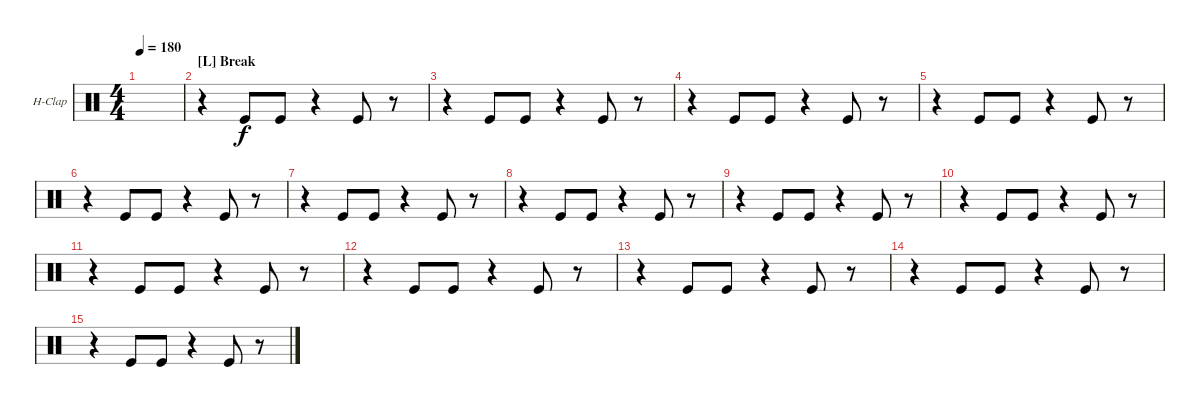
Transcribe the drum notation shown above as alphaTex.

\defaultSystemsLayout 4
\bracketExtendMode groupsimilarinstruments
\firstSystemTrackNameOrientation horizontal
\otherSystemsTrackNameOrientation horizontal
\track ("Hand Clap" "H-Clap") {instrument percussion}
\staff {score}
\articulation defaults
\ts (4 4)
\tempo 180
\clef neutral
\ks c
|
\section ("L" "Break ")
r.4 "Kick (hit)".8 "Kick (hit)".8 r.4 "Kick (hit)".8 r.8 |
r.4 "Kick (hit)".8 "Kick (hit)".8 r.4 "Kick (hit)".8 r.8 |
r.4 "Kick (hit)".8 "Kick (hit)".8 r.4 "Kick (hit)".8 r.8 |
r.4 "Kick (hit)".8 "Kick (hit)".8 r.4 "Kick (hit)".8 r.8 |
r.4 "Kick (hit)".8 "Kick (hit)".8 r.4 "Kick (hit)".8 r.8 |
r.4 "Kick (hit)".8 "Kick (hit)".8 r.4 "Kick (hit)".8 r.8 |
r.4 "Kick (hit)".8 "Kick (hit)".8 r.4 "Kick (hit)".8 r.8 |
r.4 "Kick (hit)".8 "Kick (hit)".8 r.4 "Kick (hit)".8 r.8 |
r.4 "Kick (hit)".8 "Kick (hit)".8 r.4 "Kick (hit)".8 r.8 |
r.4 "Kick (hit)".8 "Kick (hit)".8 r.4 "Kick (hit)".8 r.8 |
r.4 "Kick (hit)".8 "Kick (hit)".8 r.4 "Kick (hit)".8 r.8 |
r.4 "Kick (hit)".8 "Kick (hit)".8 r.4 "Kick (hit)".8 r.8 |
r.4 "Kick (hit)".8 "Kick (hit)".8 r.4 "Kick (hit)".8 r.8 |
r.4 "Kick (hit)".8 "Kick (hit)".8 r.4 "Kick (hit)".8 r.8
